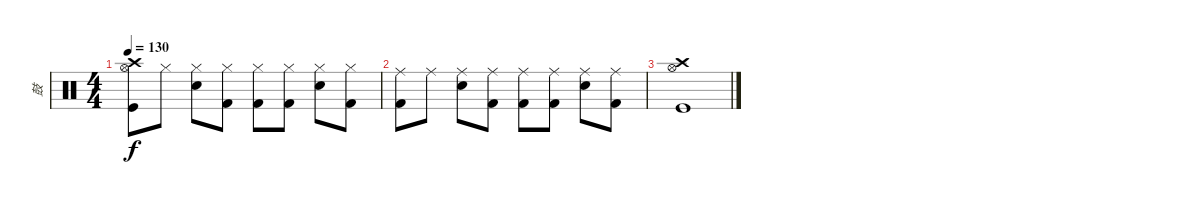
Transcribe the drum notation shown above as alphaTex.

\track ("鼓" "鼓") {instrument percussion}
\staff {score}
\articulation defaults
\ts (4 4)
\tempo 130
\clef neutral
\ks c
("Hi-Hat (open)" "Crash high (hit)" "Kick (hit)").8{dy f} "Hi-Hat (closed)".8 ("Hi-Hat (closed)" "Electric Snare (hit)").8 ("Hi-Hat (closed)" "Kick (hit) 2").8 ("Hi-Hat (closed)" "Kick (hit) 2").8 ("Hi-Hat (closed)" "Kick (hit) 2").8 ("Hi-Hat (closed)" "Electric Snare (hit)").8 ("Hi-Hat (closed)" "Kick (hit) 2").8 |
("Ride (middle)" "Kick (hit) 2").8 "Ride (middle)".8 ("Ride (middle)" "Electric Snare (hit)").8 ("Ride (middle)" "Kick (hit) 2").8 ("Ride (middle)" "Kick (hit) 2").8 ("Ride (middle)" "Kick (hit) 2").8 ("Ride (middle)" "Electric Snare (hit)").8 ("Ride (middle)" "Kick (hit) 2").8 |
("Hi-Hat (open)" "Crash high (hit)" "Kick (hit)").1
